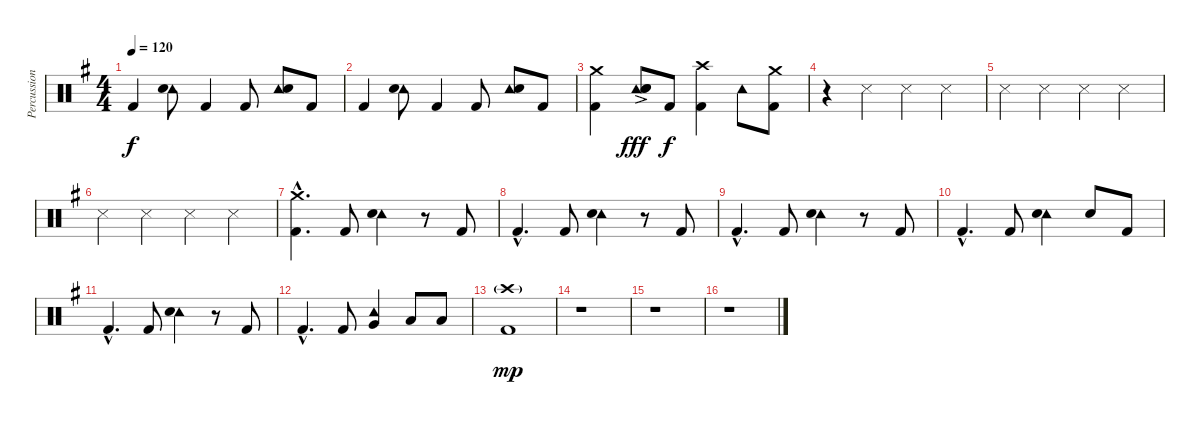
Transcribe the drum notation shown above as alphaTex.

\track ("Percussion" "Percussion") {instrument percussion}
\staff {score}
\articulation defaults
\ts (4 4)
\tempo 120
\clef neutral
\ks g "Kick (hit) 2".4{dy f}
("Tambourine (hit)" "Snare (hit) 2").8 "Kick (hit) 2".4 "Kick (hit) 2".8 ("Tambourine (hit)" "Snare (hit) 2").8 "Kick (hit) 2".8 |
"Kick (hit) 2".4 ("Tambourine (hit)" "Snare (hit) 2").8 "Kick (hit) 2".4 "Kick (hit) 2".8 ("Tambourine (hit)" "Snare (hit) 2").8 "Kick (hit) 2".8 |
("Crash medium (hit)" "Kick (hit) 2").4 ("Tambourine (hit)" "Snare (hit) 2"{ac} "Snare (hit) 2").8{bd 30 dy fff} "Kick (hit) 2".8{dy f} ("Crash high (hit)" "Kick (hit) 2").4 "Tambourine (hit)".8 ("Crash medium (hit)" "Kick (hit) 2").8 |
r.4 "Snare (side stick) 3".4 "Snare (side stick) 3".4 "Snare (side stick) 3".4 |
"Snare (side stick) 3".4 "Snare (side stick) 3".4 "Snare (side stick) 3".4 "Snare (side stick) 3".4 |
"Snare (side stick) 3".4 "Snare (side stick) 3".4 "Snare (side stick) 3".4 "Snare (side stick) 3".4 |
("Crash medium (hit)"{hac} "Kick (hit) 2"{hac}).4{d} "Kick (hit) 2".8 ("Tambourine (hit)" "Snare (hit) 2").4 r.8 "Kick (hit) 2".8 |
"Kick (hit) 2"{hac}.4{d} "Kick (hit) 2".8 ("Tambourine (hit)" "Snare (hit) 2").4 r.8 "Kick (hit) 2".8 |
"Kick (hit) 2"{hac}.4{d} "Kick (hit) 2".8 ("Tambourine (hit)" "Snare (hit) 2").4 r.8 "Kick (hit) 2".8 |
"Kick (hit) 2"{hac}.4{d} "Kick (hit) 2".8 ("Tambourine (hit)" "Snare (hit) 2").4 "Snare (hit) 2".8 "Kick (hit) 2".8 |
"Kick (hit) 2"{hac}.4{d} "Kick (hit) 2".8 ("Tambourine (hit)" "Snare (hit) 2").4 r.8 "Kick (hit) 2".8 |
"Kick (hit) 2"{hac}.4{d} "Kick (hit) 2".8 ("Tambourine (hit)" "Very Low Tom (hit)").4 "Low Floor Tom (hit)".8 "Low Floor Tom (hit)".8 |
("Crash high (hit)"{g} "Kick (hit) 2").1{dy mp} |
r.1 |
r.1 |
r.1
